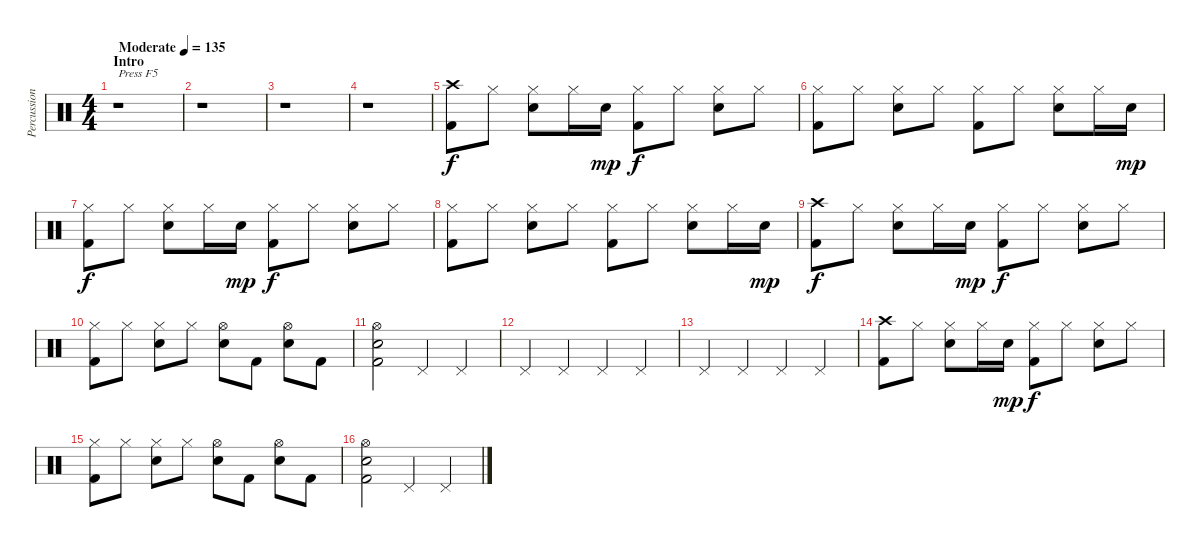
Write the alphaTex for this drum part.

\track ("Percussion" "Percussion") {instrument percussion}
\staff {score}
\articulation defaults
\ts (4 4)
\section ("" "Intro")
\tempo (135 "Moderate")
\clef neutral
\ks c
r.1{txt "Press F5" dy f} |
r.1 |
r.1 |
r.1 |
("Crash high (hit)" "Kick (hit) 2").8 "Hi-Hat (closed)".8 ("Hi-Hat (closed)" "Snare (hit) 2").8 "Hi-Hat (closed)".16 "Snare (hit) 2".16{dy mp} ("Hi-Hat (closed)" "Kick (hit) 2").8{dy f} "Hi-Hat (closed)".8 ("Hi-Hat (closed)" "Snare (hit) 2").8 "Hi-Hat (closed)".8 |
("Hi-Hat (closed)" "Kick (hit) 2").8 "Hi-Hat (closed)".8 ("Hi-Hat (closed)" "Snare (hit) 2").8 "Hi-Hat (closed)".8 ("Hi-Hat (closed)" "Kick (hit) 2").8 "Hi-Hat (closed)".8 ("Hi-Hat (closed)" "Snare (hit) 2").8 "Hi-Hat (closed)".16 "Snare (hit) 2".16{dy mp} |
("Hi-Hat (closed)" "Kick (hit) 2").8{dy f} "Hi-Hat (closed)".8 ("Hi-Hat (closed)" "Snare (hit) 2").8 "Hi-Hat (closed)".16 "Snare (hit) 2".16{dy mp} ("Hi-Hat (closed)" "Kick (hit) 2").8{dy f} "Hi-Hat (closed)".8 ("Hi-Hat (closed)" "Snare (hit) 2").8 "Hi-Hat (closed)".8 |
("Hi-Hat (closed)" "Kick (hit) 2").8 "Hi-Hat (closed)".8 ("Hi-Hat (closed)" "Snare (hit) 2").8 "Hi-Hat (closed)".8 ("Hi-Hat (closed)" "Kick (hit) 2").8 "Hi-Hat (closed)".8 ("Hi-Hat (closed)" "Snare (hit) 2").8 "Hi-Hat (closed)".16 "Snare (hit) 2".16{dy mp} |
("Crash high (hit)" "Kick (hit) 2").8{dy f} "Hi-Hat (closed)".8 ("Hi-Hat (closed)" "Snare (hit) 2").8 "Hi-Hat (closed)".16 "Snare (hit) 2".16{dy mp} ("Hi-Hat (closed)" "Kick (hit) 2").8{dy f} "Hi-Hat (closed)".8 ("Hi-Hat (closed)" "Snare (hit) 2").8 "Hi-Hat (closed)".8 |
("Hi-Hat (closed)" "Kick (hit) 2").8 "Hi-Hat (closed)".8 ("Hi-Hat (closed)" "Snare (hit) 2").8 "Hi-Hat (closed)".8 ("Hi-Hat (open)" "Snare (hit) 2").8 "Kick (hit) 2".8 ("Hi-Hat (open)" "Snare (hit) 2").8 "Kick (hit) 2".8 |
("Hi-Hat (open)" "Snare (hit) 2" "Kick (hit) 2").2 "Pedal Hi-Hat (hit)".4 "Pedal Hi-Hat (hit)".4 |
"Pedal Hi-Hat (hit)".4 "Pedal Hi-Hat (hit)".4 "Pedal Hi-Hat (hit)".4 "Pedal Hi-Hat (hit)".4 |
"Pedal Hi-Hat (hit)".4 "Pedal Hi-Hat (hit)".4 "Pedal Hi-Hat (hit)".4 "Pedal Hi-Hat (hit)".4 |
("Crash high (hit)" "Kick (hit) 2").8 "Hi-Hat (closed)".8 ("Hi-Hat (closed)" "Snare (hit) 2").8 "Hi-Hat (closed)".16 "Snare (hit) 2".16{dy mp} ("Hi-Hat (closed)" "Kick (hit) 2").8{dy f} "Hi-Hat (closed)".8 ("Hi-Hat (closed)" "Snare (hit) 2").8 "Hi-Hat (closed)".8 |
("Hi-Hat (closed)" "Kick (hit) 2").8 "Hi-Hat (closed)".8 ("Hi-Hat (closed)" "Snare (hit) 2").8 "Hi-Hat (closed)".8 ("Hi-Hat (open)" "Snare (hit) 2").8 "Kick (hit) 2".8 ("Hi-Hat (open)" "Snare (hit) 2").8 "Kick (hit) 2".8 |
("Hi-Hat (open)" "Snare (hit) 2" "Kick (hit) 2").2 "Pedal Hi-Hat (hit)".4 "Pedal Hi-Hat (hit)".4
